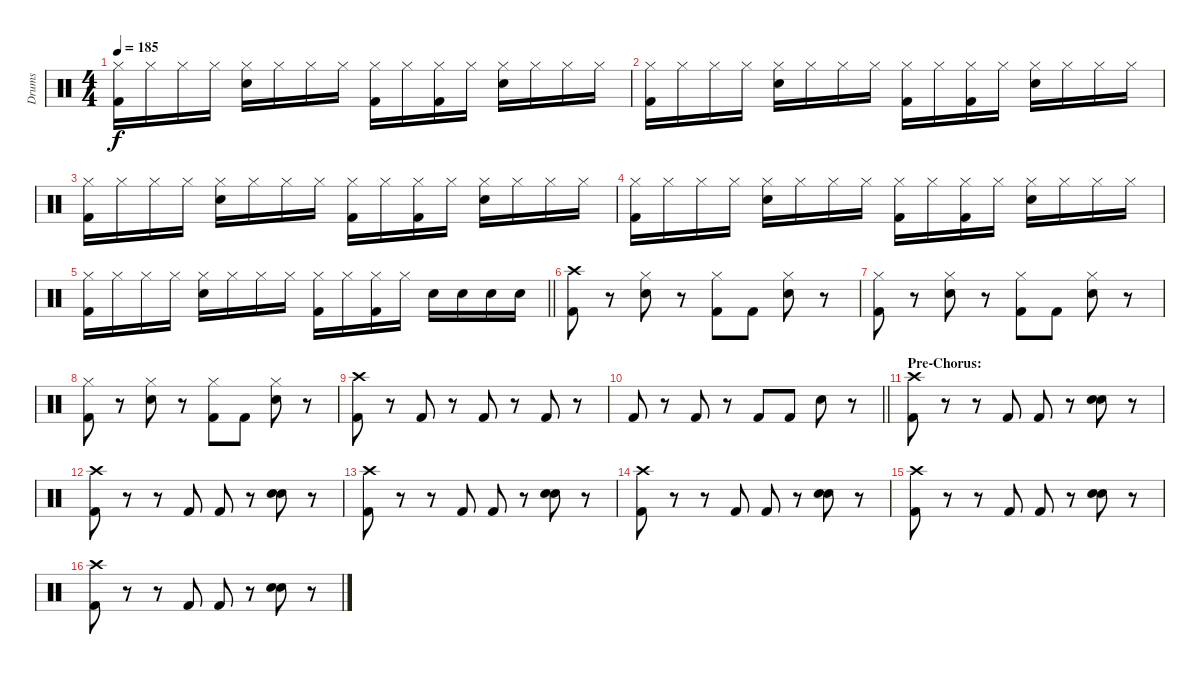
\track ("Drums" "Drums") {instrument percussion}
\staff {score}
\articulation defaults
\ts (4 4)
\tempo 185
\clef neutral
\ks c
("Hi-Hat (closed)" "Kick (hit) 2").16{dy f} "Hi-Hat (closed)".16 "Hi-Hat (closed)".16 "Hi-Hat (closed)".16 ("Hi-Hat (closed)" "Snare (hit) 2").16 "Hi-Hat (closed)".16 "Hi-Hat (closed)".16 "Hi-Hat (closed)".16 ("Hi-Hat (closed)" "Kick (hit) 2").16 "Hi-Hat (closed)".16 ("Hi-Hat (closed)" "Kick (hit) 2").16 "Hi-Hat (closed)".16 ("Hi-Hat (closed)" "Snare (hit) 2").16 "Hi-Hat (closed)".16 "Hi-Hat (closed)".16 "Hi-Hat (closed)".16 |
("Hi-Hat (closed)" "Kick (hit) 2").16 "Hi-Hat (closed)".16 "Hi-Hat (closed)".16 "Hi-Hat (closed)".16 ("Hi-Hat (closed)" "Snare (hit) 2").16 "Hi-Hat (closed)".16 "Hi-Hat (closed)".16 "Hi-Hat (closed)".16 ("Hi-Hat (closed)" "Kick (hit) 2").16 "Hi-Hat (closed)".16 ("Hi-Hat (closed)" "Kick (hit) 2").16 "Hi-Hat (closed)".16 ("Hi-Hat (closed)" "Snare (hit) 2").16 "Hi-Hat (closed)".16 "Hi-Hat (closed)".16 "Hi-Hat (closed)".16 |
("Hi-Hat (closed)" "Kick (hit) 2").16 "Hi-Hat (closed)".16 "Hi-Hat (closed)".16 "Hi-Hat (closed)".16 ("Hi-Hat (closed)" "Snare (hit) 2").16 "Hi-Hat (closed)".16 "Hi-Hat (closed)".16 "Hi-Hat (closed)".16 ("Hi-Hat (closed)" "Kick (hit) 2").16 "Hi-Hat (closed)".16 ("Hi-Hat (closed)" "Kick (hit) 2").16 "Hi-Hat (closed)".16 ("Hi-Hat (closed)" "Snare (hit) 2").16 "Hi-Hat (closed)".16 "Hi-Hat (closed)".16 "Hi-Hat (closed)".16 |
("Hi-Hat (closed)" "Kick (hit) 2").16 "Hi-Hat (closed)".16 "Hi-Hat (closed)".16 "Hi-Hat (closed)".16 ("Hi-Hat (closed)" "Snare (hit) 2").16 "Hi-Hat (closed)".16 "Hi-Hat (closed)".16 "Hi-Hat (closed)".16 ("Hi-Hat (closed)" "Kick (hit) 2").16 "Hi-Hat (closed)".16 ("Hi-Hat (closed)" "Kick (hit) 2").16 "Hi-Hat (closed)".16 ("Hi-Hat (closed)" "Snare (hit) 2").16 "Hi-Hat (closed)".16 "Hi-Hat (closed)".16 "Hi-Hat (closed)".16 |
\barLineRight lightlight
("Hi-Hat (closed)" "Kick (hit) 2").16 "Hi-Hat (closed)".16 "Hi-Hat (closed)".16 "Hi-Hat (closed)".16 ("Hi-Hat (closed)" "Snare (hit) 2").16 "Hi-Hat (closed)".16 "Hi-Hat (closed)".16 "Hi-Hat (closed)".16 ("Hi-Hat (closed)" "Kick (hit) 2").16 "Hi-Hat (closed)".16 ("Hi-Hat (closed)" "Kick (hit) 2").16 "Hi-Hat (closed)".16 "Snare (hit) 2".16 "Snare (hit) 2".16 "Snare (hit) 2".16 "Snare (hit) 2".16 |
("Crash high (hit)" "Kick (hit) 2").8 r.8 ("Hi-Hat (closed)" "Snare (hit) 2").8 r.8 ("Hi-Hat (closed)" "Kick (hit) 2").8 "Kick (hit) 2".8 ("Hi-Hat (closed)" "Snare (hit) 2").8 r.8 |
("Hi-Hat (closed)" "Kick (hit) 2").8 r.8 ("Hi-Hat (closed)" "Snare (hit) 2").8 r.8 ("Hi-Hat (closed)" "Kick (hit) 2").8 "Kick (hit) 2".8 ("Hi-Hat (closed)" "Snare (hit) 2").8 r.8 |
("Hi-Hat (closed)" "Kick (hit) 2").8 r.8 ("Hi-Hat (closed)" "Snare (hit) 2").8 r.8 ("Hi-Hat (closed)" "Kick (hit) 2").8 "Kick (hit) 2".8 ("Hi-Hat (closed)" "Snare (hit) 2").8 r.8 |
("Crash high (hit)" "Kick (hit) 2").8 r.8 "Kick (hit) 2".8 r.8 "Kick (hit) 2".8 r.8 "Kick (hit) 2".8 r.8 |
\barLineRight lightlight "Kick (hit) 2".8
r.8 "Kick (hit) 2".8 r.8 "Kick (hit) 2".8 "Kick (hit) 2".8 "Snare (hit) 2".8 r.8 |
\section ("" "Pre-Chorus:")
("Crash high (hit)" "Kick (hit) 2").8 r.8 r.8 "Kick (hit) 2".8 "Kick (hit) 2".8 r.8 ("Snare (hit) 2" "Snare (hit) 2").8 r.8 |
("Crash high (hit)" "Kick (hit) 2").8 r.8 r.8 "Kick (hit) 2".8 "Kick (hit) 2".8 r.8 ("Snare (hit) 2" "Snare (hit) 2").8 r.8 |
("Crash high (hit)" "Kick (hit) 2").8 r.8 r.8 "Kick (hit) 2".8 "Kick (hit) 2".8 r.8 ("Snare (hit) 2" "Snare (hit) 2").8 r.8 |
("Crash high (hit)" "Kick (hit) 2").8 r.8 r.8 "Kick (hit) 2".8 "Kick (hit) 2".8 r.8 ("Snare (hit) 2" "Snare (hit) 2").8 r.8 |
("Crash high (hit)" "Kick (hit) 2").8 r.8 r.8 "Kick (hit) 2".8 "Kick (hit) 2".8 r.8 ("Snare (hit) 2" "Snare (hit) 2").8 r.8 |
("Crash high (hit)" "Kick (hit) 2").8 r.8 r.8 "Kick (hit) 2".8 "Kick (hit) 2".8 r.8 ("Snare (hit) 2" "Snare (hit) 2").8 r.8
